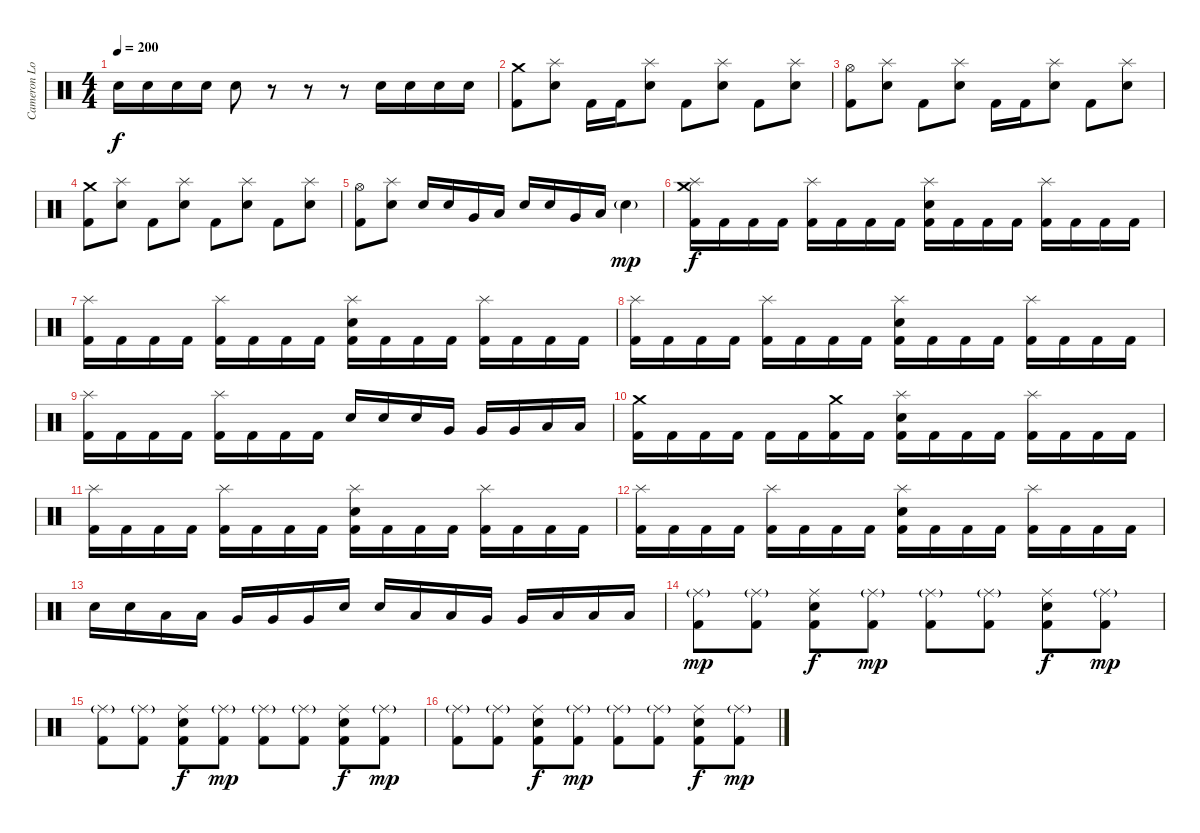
\track ("Cameron Losch - drums" "Cameron Lo") {instrument percussion}
\staff {score}
\articulation defaults
\ts (4 4)
\tempo 200
\clef neutral
\ks c "Electric Snare (hit)".16{dy f} "Electric Snare (hit)".16 "Electric Snare (hit)".16 "Electric Snare (hit)".16 "Electric Snare (hit)".8
r.8 r.8 r.8 "Electric Snare (hit)".16 "Electric Snare (hit)".16 "Electric Snare (hit)".16 "Electric Snare (hit)".16 |
("Crash medium (hit)" "Kick (hit) 2").8 ("Splash (hit)" "Electric Snare (hit)").8 "Kick (hit) 2".16 "Kick (hit) 2".16 ("Splash (hit)" "Electric Snare (hit)").8 "Kick (hit) 2".8 ("Splash (hit)" "Electric Snare (hit)").8 "Kick (hit) 2".8 ("Splash (hit)" "Electric Snare (hit)").8 |
("Hi-Hat (open)" "Kick (hit) 2").8 ("Splash (hit)" "Electric Snare (hit)").8 "Kick (hit) 2".8 ("Splash (hit)" "Electric Snare (hit)").8 "Kick (hit) 2".16 "Kick (hit) 2".16 ("Splash (hit)" "Electric Snare (hit)").8 "Kick (hit) 2".8 ("Splash (hit)" "Electric Snare (hit)").8 |
("Crash medium (hit)" "Kick (hit) 2").8 ("Splash (hit)" "Electric Snare (hit)").8 "Kick (hit) 2".8 ("Splash (hit)" "Electric Snare (hit)").8 "Kick (hit) 2".8 ("Splash (hit)" "Electric Snare (hit)").8 "Kick (hit) 2".8 ("Splash (hit)" "Electric Snare (hit)").8 |
("Hi-Hat (open)" "Kick (hit) 2").8 ("Splash (hit)" "Electric Snare (hit)").8 "Electric Snare (hit)".16 "Electric Snare (hit)".16 "Very Low Tom (hit)".16 "Low Floor Tom (hit)".16 "Electric Snare (hit)".16 "Electric Snare (hit)".16 "Very Low Tom (hit)".16 "Low Floor Tom (hit)".16 "Electric Snare (hit)"{g}.4{dy mp} |
("Crash medium (hit)" "Splash (hit)" "Kick (hit) 2").16{dy f} "Kick (hit) 2".16 "Kick (hit) 2".16 "Kick (hit) 2".16 ("Splash (hit)" "Kick (hit) 2").16 "Kick (hit) 2".16 "Kick (hit) 2".16 "Kick (hit) 2".16 ("Splash (hit)" "Electric Snare (hit)" "Kick (hit) 2").16 "Kick (hit) 2".16 "Kick (hit) 2".16 "Kick (hit) 2".16 ("Splash (hit)" "Kick (hit) 2").16 "Kick (hit) 2".16 "Kick (hit) 2".16 "Kick (hit) 2".16 |
("Splash (hit)" "Kick (hit) 2").16 "Kick (hit) 2".16 "Kick (hit) 2".16 "Kick (hit) 2".16 ("Splash (hit)" "Kick (hit) 2").16 "Kick (hit) 2".16 "Kick (hit) 2".16 "Kick (hit) 2".16 ("Splash (hit)" "Electric Snare (hit)" "Kick (hit) 2").16 "Kick (hit) 2".16 "Kick (hit) 2".16 "Kick (hit) 2".16 ("Splash (hit)" "Kick (hit) 2").16 "Kick (hit) 2".16 "Kick (hit) 2".16 "Kick (hit) 2".16 |
("Splash (hit)" "Kick (hit) 2").16 "Kick (hit) 2".16 "Kick (hit) 2".16 "Kick (hit) 2".16 ("Splash (hit)" "Kick (hit) 2").16 "Kick (hit) 2".16 "Kick (hit) 2".16 "Kick (hit) 2".16 ("Splash (hit)" "Electric Snare (hit)" "Kick (hit) 2").16 "Kick (hit) 2".16 "Kick (hit) 2".16 "Kick (hit) 2".16 ("Splash (hit)" "Kick (hit) 2").16 "Kick (hit) 2".16 "Kick (hit) 2".16 "Kick (hit) 2".16 |
("Splash (hit)" "Kick (hit) 2").16 "Kick (hit) 2".16 "Kick (hit) 2".16 "Kick (hit) 2".16 ("Splash (hit)" "Kick (hit) 2").16 "Kick (hit) 2".16 "Kick (hit) 2".16 "Kick (hit) 2".16 "Electric Snare (hit)".16 "Electric Snare (hit)".16 "Electric Snare (hit)".16 "Very Low Tom (hit)".16 "Very Low Tom (hit)".16 "Very Low Tom (hit)".16 "Low Floor Tom (hit)".16 "Low Floor Tom (hit)".16 |
("Crash medium (hit)" "Kick (hit) 2").16 "Kick (hit) 2".16 "Kick (hit) 2".16 "Kick (hit) 2".16 "Kick (hit) 2".16 "Kick (hit) 2".16 ("Crash medium (hit)" "Kick (hit) 2").16 "Kick (hit) 2".16 ("Splash (hit)" "Electric Snare (hit)" "Kick (hit) 2").16 "Kick (hit) 2".16 "Kick (hit) 2".16 "Kick (hit) 2".16 ("Splash (hit)" "Kick (hit) 2").16 "Kick (hit) 2".16 "Kick (hit) 2".16 "Kick (hit) 2".16 |
("Splash (hit)" "Kick (hit) 2").16 "Kick (hit) 2".16 "Kick (hit) 2".16 "Kick (hit) 2".16 ("Splash (hit)" "Kick (hit) 2").16 "Kick (hit) 2".16 "Kick (hit) 2".16 "Kick (hit) 2".16 ("Splash (hit)" "Electric Snare (hit)" "Kick (hit) 2").16 "Kick (hit) 2".16 "Kick (hit) 2".16 "Kick (hit) 2".16 ("Splash (hit)" "Kick (hit) 2").16 "Kick (hit) 2".16 "Kick (hit) 2".16 "Kick (hit) 2".16 |
("Splash (hit)" "Kick (hit) 2").16 "Kick (hit) 2".16 "Kick (hit) 2".16 "Kick (hit) 2".16 ("Splash (hit)" "Kick (hit) 2").16 "Kick (hit) 2".16 "Kick (hit) 2".16 "Kick (hit) 2".16 ("Splash (hit)" "Electric Snare (hit)" "Kick (hit) 2").16 "Kick (hit) 2".16 "Kick (hit) 2".16 "Kick (hit) 2".16 ("Splash (hit)" "Kick (hit) 2").16 "Kick (hit) 2".16 "Kick (hit) 2".16 "Kick (hit) 2".16 |
"Electric Snare (hit)".16 "Electric Snare (hit)".16 "Low Tom (hit)".16 "Low Tom (hit)".16 "Very Low Tom (hit)".16 "Very Low Tom (hit)".16 "Very Low Tom (hit)".16 "Electric Snare (hit)".16 "Electric Snare (hit)".16 "Low Tom (hit)".16 "Low Tom (hit)".16 "Very Low Tom (hit)".16 "Very Low Tom (hit)".16 "Low Floor Tom (hit)".16 "Low Floor Tom (hit)".16 "Low Floor Tom (hit)".16 |
("Ride (middle)"{g} "Kick (hit) 2").8{dy mp} ("Ride (middle)"{g} "Kick (hit) 2").8 ("Ride (middle)" "Electric Snare (hit)" "Kick (hit) 2").8{dy f} ("Ride (middle)"{g} "Kick (hit) 2").8{dy mp} ("Ride (middle)"{g} "Kick (hit) 2").8 ("Ride (middle)"{g} "Kick (hit) 2").8 ("Ride (middle)" "Electric Snare (hit)" "Kick (hit) 2").8{dy f} ("Ride (middle)"{g} "Kick (hit) 2").8{dy mp} |
("Ride (middle)"{g} "Kick (hit) 2").8 ("Ride (middle)"{g} "Kick (hit) 2").8 ("Ride (middle)" "Electric Snare (hit)" "Kick (hit) 2").8{dy f} ("Ride (middle)"{g} "Kick (hit) 2").8{dy mp} ("Ride (middle)"{g} "Kick (hit) 2").8 ("Ride (middle)"{g} "Kick (hit) 2").8 ("Ride (middle)" "Electric Snare (hit)" "Kick (hit) 2").8{dy f} ("Ride (middle)"{g} "Kick (hit) 2").8{dy mp} |
("Ride (middle)"{g} "Kick (hit) 2").8 ("Ride (middle)"{g} "Kick (hit) 2").8 ("Ride (middle)" "Electric Snare (hit)" "Kick (hit) 2").8{dy f} ("Ride (middle)"{g} "Kick (hit) 2").8{dy mp} ("Ride (middle)"{g} "Kick (hit) 2").8 ("Ride (middle)"{g} "Kick (hit) 2").8 ("Ride (middle)" "Electric Snare (hit)" "Kick (hit) 2").8{dy f} ("Ride (middle)"{g} "Kick (hit) 2").8{dy mp}
